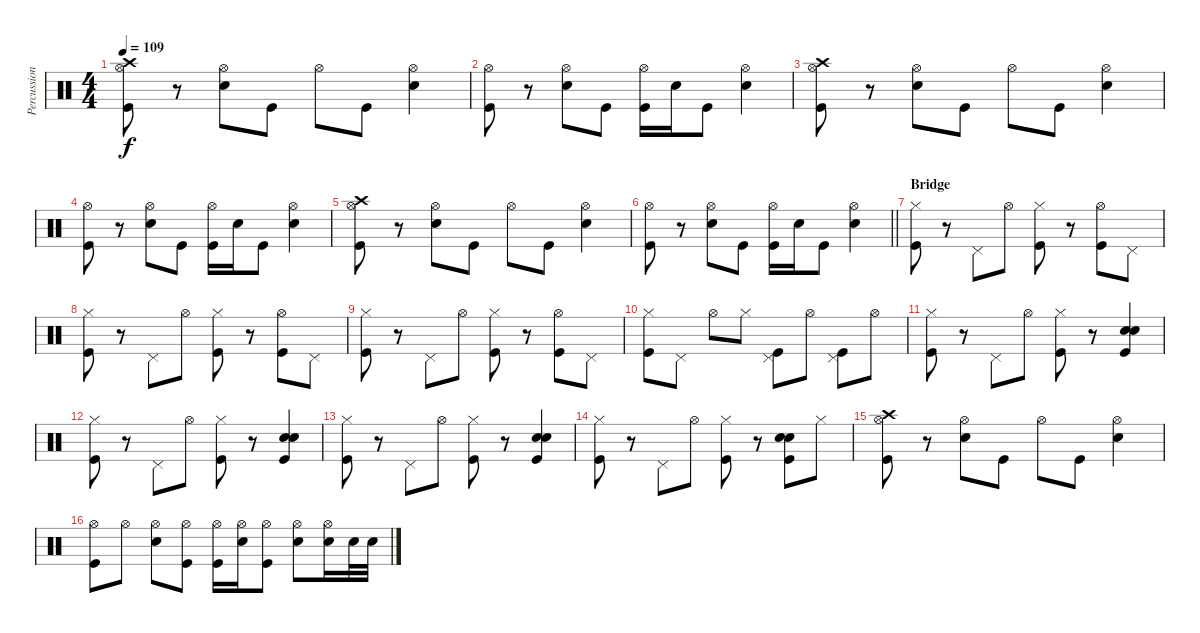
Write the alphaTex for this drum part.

\track ("Percussioni" "Percussion") {instrument percussion}
\staff {score}
\articulation defaults
\ts (4 4)
\tempo 109
\clef neutral
\ks c
("Crash high (hit)" "Kick (hit)" "Hi-Hat (open)").8{dy f} r.8 ("Snare (hit) 2" "Hi-Hat (open)").8 "Kick (hit)".8 "Hi-Hat (open)".8 "Kick (hit)".8 ("Snare (hit) 2" "Hi-Hat (open)").4 |
("Kick (hit)" "Hi-Hat (open)").8 r.8 ("Snare (hit) 2" "Hi-Hat (open)").8 "Kick (hit)".8 ("Kick (hit)" "Hi-Hat (open)").16 "Snare (hit) 2".16 "Kick (hit)".8 ("Snare (hit) 2" "Hi-Hat (open)").4 |
("Crash high (hit)" "Kick (hit)" "Hi-Hat (open)").8 r.8 ("Snare (hit) 2" "Hi-Hat (open)").8 "Kick (hit)".8 "Hi-Hat (open)".8 "Kick (hit)".8 ("Snare (hit) 2" "Hi-Hat (open)").4 |
("Kick (hit)" "Hi-Hat (open)").8 r.8 ("Snare (hit) 2" "Hi-Hat (open)").8 "Kick (hit)".8 ("Kick (hit)" "Hi-Hat (open)").16 "Snare (hit) 2".16 "Kick (hit)".8 ("Snare (hit) 2" "Hi-Hat (open)").4 |
("Crash high (hit)" "Kick (hit)" "Hi-Hat (open)").8 r.8 ("Snare (hit) 2" "Hi-Hat (open)").8 "Kick (hit)".8 "Hi-Hat (open)".8 "Kick (hit)".8 ("Snare (hit) 2" "Hi-Hat (open)").4 |
\barLineRight lightlight
("Kick (hit)" "Hi-Hat (open)").8 r.8 ("Snare (hit) 2" "Hi-Hat (open)").8 "Kick (hit)".8 ("Kick (hit)" "Hi-Hat (open)").16 "Snare (hit) 2".16 "Kick (hit)".8 ("Snare (hit) 2" "Hi-Hat (open)").4 |
\section ("" "Bridge")
("Hi-Hat (closed)" "Kick (hit)").8 r.8 "Pedal Hi-Hat (hit)".8 "Hi-Hat (open)".8 ("Hi-Hat (closed)" "Kick (hit)").8 r.8 ("Hi-Hat (open)" "Kick (hit)").8 "Pedal Hi-Hat (hit)".8 |
("Hi-Hat (closed)" "Kick (hit)").8 r.8 "Pedal Hi-Hat (hit)".8 "Hi-Hat (open)".8 ("Hi-Hat (closed)" "Kick (hit)").8 r.8 ("Hi-Hat (open)" "Kick (hit)").8 "Pedal Hi-Hat (hit)".8 |
("Hi-Hat (closed)" "Kick (hit)").8 r.8 "Pedal Hi-Hat (hit)".8 "Hi-Hat (open)".8 ("Hi-Hat (closed)" "Kick (hit)").8 r.8 ("Hi-Hat (open)" "Kick (hit)").8 "Pedal Hi-Hat (hit)".8 |
("Hi-Hat (closed)" "Kick (hit)").8 "Pedal Hi-Hat (hit)".8 "Hi-Hat (open)".8 "Hi-Hat (closed)".8 ("Pedal Hi-Hat (hit)" "Kick (hit)").8 "Hi-Hat (open)".8 ("Pedal Hi-Hat (hit)" "Kick (hit)").8 "Hi-Hat (open)".8 |
("Hi-Hat (closed)" "Kick (hit)").8 r.8 "Pedal Hi-Hat (hit)".8 "Hi-Hat (open)".8 ("Hi-Hat (closed)" "Kick (hit)").8 r.8 ("Snare (hit) 2" "Snare (hit) 2" "Kick (hit)").4 |
("Hi-Hat (closed)" "Kick (hit)").8 r.8 "Pedal Hi-Hat (hit)".8 "Hi-Hat (open)".8 ("Hi-Hat (closed)" "Kick (hit)").8 r.8 ("Snare (hit) 2" "Snare (hit) 2" "Kick (hit)").4 |
("Hi-Hat (closed)" "Kick (hit)").8 r.8 "Pedal Hi-Hat (hit)".8 "Hi-Hat (open)".8 ("Hi-Hat (closed)" "Kick (hit)").8 r.8 ("Snare (hit) 2" "Snare (hit) 2" "Kick (hit)").4 |
("Hi-Hat (closed)" "Kick (hit)").8 r.8 "Pedal Hi-Hat (hit)".8 "Hi-Hat (open)".8 ("Hi-Hat (closed)" "Kick (hit)").8 r.8 ("Snare (hit) 2" "Snare (hit) 2" "Kick (hit)").8 "Hi-Hat (closed)".8 |
("Crash high (hit)" "Kick (hit)" "Hi-Hat (open)").8 r.8 ("Snare (hit) 2" "Hi-Hat (open)").8 "Kick (hit)".8 "Hi-Hat (open)".8 "Kick (hit)".8 ("Snare (hit) 2" "Hi-Hat (open)").4 |
("Kick (hit)" "Hi-Hat (open)").8 "Hi-Hat (open)".8 ("Snare (hit) 2" "Hi-Hat (open)").8 ("Kick (hit)" "Hi-Hat (open)").8 ("Kick (hit)" "Hi-Hat (open)").16 ("Snare (hit) 2" "Hi-Hat (open)").16 ("Kick (hit)" "Hi-Hat (open)").8 ("Snare (hit) 2" "Hi-Hat (open)").8 ("Snare (hit) 2" "Hi-Hat (open)").16 "Snare (hit) 2".32 "Snare (hit) 2".32
